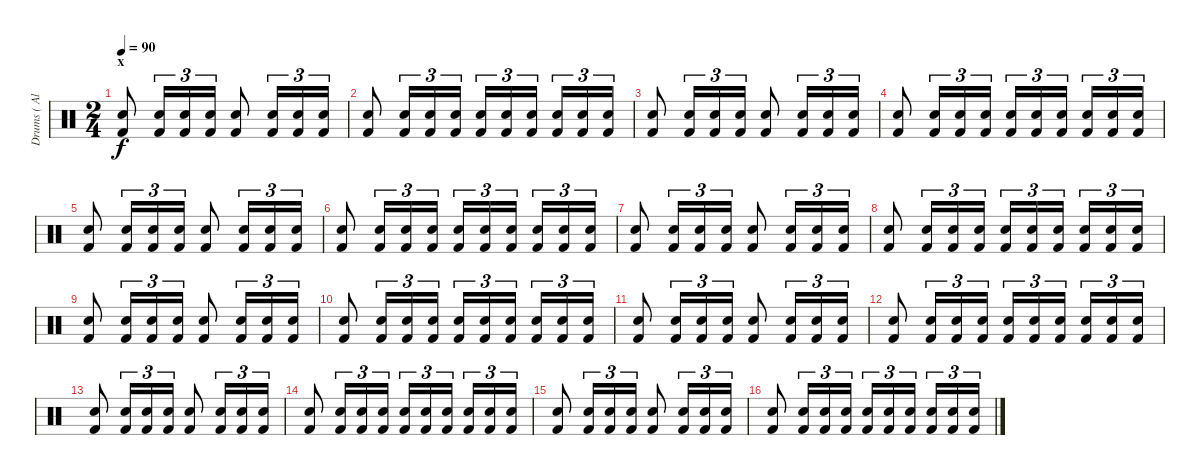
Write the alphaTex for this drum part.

\track ("Drums ( Alex Holzwarth)" "Drums ( Al") {instrument percussion}
\staff {score}
\articulation defaults
\ts (2 4)
\section ("" "x")
\tempo 90
\clef neutral
\ks c
("Snare (hit) 2" "Kick (hit) 2").8{dy f} ("Snare (hit) 2" "Kick (hit) 2").16{tu (3 2)} ("Snare (hit) 2" "Kick (hit) 2").16{tu (3 2)} ("Snare (hit) 2" "Kick (hit) 2").16{tu (3 2)} ("Snare (hit) 2" "Kick (hit) 2").8 ("Snare (hit) 2" "Kick (hit) 2").16{tu (3 2)} ("Snare (hit) 2" "Kick (hit) 2").16{tu (3 2)} ("Snare (hit) 2" "Kick (hit) 2").16{tu (3 2)} |
("Snare (hit) 2" "Kick (hit) 2").8 ("Snare (hit) 2" "Kick (hit) 2").16{tu (3 2)} ("Snare (hit) 2" "Kick (hit) 2").16{tu (3 2)} ("Snare (hit) 2" "Kick (hit) 2").16{tu (3 2)} ("Snare (hit) 2" "Kick (hit) 2").16{tu (3 2)} ("Snare (hit) 2" "Kick (hit) 2").16{tu (3 2)} ("Snare (hit) 2" "Kick (hit) 2").16{tu (3 2)} ("Snare (hit) 2" "Kick (hit) 2").16{tu (3 2)} ("Snare (hit) 2" "Kick (hit) 2").16{tu (3 2)} ("Snare (hit) 2" "Kick (hit) 2").16{tu (3 2)} |
("Snare (hit) 2" "Kick (hit) 2").8 ("Snare (hit) 2" "Kick (hit) 2").16{tu (3 2)} ("Snare (hit) 2" "Kick (hit) 2").16{tu (3 2)} ("Snare (hit) 2" "Kick (hit) 2").16{tu (3 2)} ("Snare (hit) 2" "Kick (hit) 2").8 ("Snare (hit) 2" "Kick (hit) 2").16{tu (3 2)} ("Snare (hit) 2" "Kick (hit) 2").16{tu (3 2)} ("Snare (hit) 2" "Kick (hit) 2").16{tu (3 2)} |
("Snare (hit) 2" "Kick (hit) 2").8 ("Snare (hit) 2" "Kick (hit) 2").16{tu (3 2)} ("Snare (hit) 2" "Kick (hit) 2").16{tu (3 2)} ("Snare (hit) 2" "Kick (hit) 2").16{tu (3 2)} ("Snare (hit) 2" "Kick (hit) 2").16{tu (3 2)} ("Snare (hit) 2" "Kick (hit) 2").16{tu (3 2)} ("Snare (hit) 2" "Kick (hit) 2").16{tu (3 2)} ("Snare (hit) 2" "Kick (hit) 2").16{tu (3 2)} ("Snare (hit) 2" "Kick (hit) 2").16{tu (3 2)} ("Snare (hit) 2" "Kick (hit) 2").16{tu (3 2)} |
("Snare (hit) 2" "Kick (hit) 2").8 ("Snare (hit) 2" "Kick (hit) 2").16{tu (3 2)} ("Snare (hit) 2" "Kick (hit) 2").16{tu (3 2)} ("Snare (hit) 2" "Kick (hit) 2").16{tu (3 2)} ("Snare (hit) 2" "Kick (hit) 2").8 ("Snare (hit) 2" "Kick (hit) 2").16{tu (3 2)} ("Snare (hit) 2" "Kick (hit) 2").16{tu (3 2)} ("Snare (hit) 2" "Kick (hit) 2").16{tu (3 2)} |
("Snare (hit) 2" "Kick (hit) 2").8 ("Snare (hit) 2" "Kick (hit) 2").16{tu (3 2)} ("Snare (hit) 2" "Kick (hit) 2").16{tu (3 2)} ("Snare (hit) 2" "Kick (hit) 2").16{tu (3 2)} ("Snare (hit) 2" "Kick (hit) 2").16{tu (3 2)} ("Snare (hit) 2" "Kick (hit) 2").16{tu (3 2)} ("Snare (hit) 2" "Kick (hit) 2").16{tu (3 2)} ("Snare (hit) 2" "Kick (hit) 2").16{tu (3 2)} ("Snare (hit) 2" "Kick (hit) 2").16{tu (3 2)} ("Snare (hit) 2" "Kick (hit) 2").16{tu (3 2)} |
("Snare (hit) 2" "Kick (hit) 2").8 ("Snare (hit) 2" "Kick (hit) 2").16{tu (3 2)} ("Snare (hit) 2" "Kick (hit) 2").16{tu (3 2)} ("Snare (hit) 2" "Kick (hit) 2").16{tu (3 2)} ("Snare (hit) 2" "Kick (hit) 2").8 ("Snare (hit) 2" "Kick (hit) 2").16{tu (3 2)} ("Snare (hit) 2" "Kick (hit) 2").16{tu (3 2)} ("Snare (hit) 2" "Kick (hit) 2").16{tu (3 2)} |
("Snare (hit) 2" "Kick (hit) 2").8 ("Snare (hit) 2" "Kick (hit) 2").16{tu (3 2)} ("Snare (hit) 2" "Kick (hit) 2").16{tu (3 2)} ("Snare (hit) 2" "Kick (hit) 2").16{tu (3 2)} ("Snare (hit) 2" "Kick (hit) 2").16{tu (3 2)} ("Snare (hit) 2" "Kick (hit) 2").16{tu (3 2)} ("Snare (hit) 2" "Kick (hit) 2").16{tu (3 2)} ("Snare (hit) 2" "Kick (hit) 2").16{tu (3 2)} ("Snare (hit) 2" "Kick (hit) 2").16{tu (3 2)} ("Snare (hit) 2" "Kick (hit) 2").16{tu (3 2)} |
("Snare (hit) 2" "Kick (hit) 2").8 ("Snare (hit) 2" "Kick (hit) 2").16{tu (3 2)} ("Snare (hit) 2" "Kick (hit) 2").16{tu (3 2)} ("Snare (hit) 2" "Kick (hit) 2").16{tu (3 2)} ("Snare (hit) 2" "Kick (hit) 2").8 ("Snare (hit) 2" "Kick (hit) 2").16{tu (3 2)} ("Snare (hit) 2" "Kick (hit) 2").16{tu (3 2)} ("Snare (hit) 2" "Kick (hit) 2").16{tu (3 2)} |
("Snare (hit) 2" "Kick (hit) 2").8 ("Snare (hit) 2" "Kick (hit) 2").16{tu (3 2)} ("Snare (hit) 2" "Kick (hit) 2").16{tu (3 2)} ("Snare (hit) 2" "Kick (hit) 2").16{tu (3 2)} ("Snare (hit) 2" "Kick (hit) 2").16{tu (3 2)} ("Snare (hit) 2" "Kick (hit) 2").16{tu (3 2)} ("Snare (hit) 2" "Kick (hit) 2").16{tu (3 2)} ("Snare (hit) 2" "Kick (hit) 2").16{tu (3 2)} ("Snare (hit) 2" "Kick (hit) 2").16{tu (3 2)} ("Snare (hit) 2" "Kick (hit) 2").16{tu (3 2)} |
("Snare (hit) 2" "Kick (hit) 2").8 ("Snare (hit) 2" "Kick (hit) 2").16{tu (3 2)} ("Snare (hit) 2" "Kick (hit) 2").16{tu (3 2)} ("Snare (hit) 2" "Kick (hit) 2").16{tu (3 2)} ("Snare (hit) 2" "Kick (hit) 2").8 ("Snare (hit) 2" "Kick (hit) 2").16{tu (3 2)} ("Snare (hit) 2" "Kick (hit) 2").16{tu (3 2)} ("Snare (hit) 2" "Kick (hit) 2").16{tu (3 2)} |
("Snare (hit) 2" "Kick (hit) 2").8 ("Snare (hit) 2" "Kick (hit) 2").16{tu (3 2)} ("Snare (hit) 2" "Kick (hit) 2").16{tu (3 2)} ("Snare (hit) 2" "Kick (hit) 2").16{tu (3 2)} ("Snare (hit) 2" "Kick (hit) 2").16{tu (3 2)} ("Snare (hit) 2" "Kick (hit) 2").16{tu (3 2)} ("Snare (hit) 2" "Kick (hit) 2").16{tu (3 2)} ("Snare (hit) 2" "Kick (hit) 2").16{tu (3 2)} ("Snare (hit) 2" "Kick (hit) 2").16{tu (3 2)} ("Snare (hit) 2" "Kick (hit) 2").16{tu (3 2)} |
("Snare (hit) 2" "Kick (hit) 2").8 ("Snare (hit) 2" "Kick (hit) 2").16{tu (3 2)} ("Snare (hit) 2" "Kick (hit) 2").16{tu (3 2)} ("Snare (hit) 2" "Kick (hit) 2").16{tu (3 2)} ("Snare (hit) 2" "Kick (hit) 2").8 ("Snare (hit) 2" "Kick (hit) 2").16{tu (3 2)} ("Snare (hit) 2" "Kick (hit) 2").16{tu (3 2)} ("Snare (hit) 2" "Kick (hit) 2").16{tu (3 2)} |
("Snare (hit) 2" "Kick (hit) 2").8 ("Snare (hit) 2" "Kick (hit) 2").16{tu (3 2)} ("Snare (hit) 2" "Kick (hit) 2").16{tu (3 2)} ("Snare (hit) 2" "Kick (hit) 2").16{tu (3 2)} ("Snare (hit) 2" "Kick (hit) 2").16{tu (3 2)} ("Snare (hit) 2" "Kick (hit) 2").16{tu (3 2)} ("Snare (hit) 2" "Kick (hit) 2").16{tu (3 2)} ("Snare (hit) 2" "Kick (hit) 2").16{tu (3 2)} ("Snare (hit) 2" "Kick (hit) 2").16{tu (3 2)} ("Snare (hit) 2" "Kick (hit) 2").16{tu (3 2)} |
("Snare (hit) 2" "Kick (hit) 2").8 ("Snare (hit) 2" "Kick (hit) 2").16{tu (3 2)} ("Snare (hit) 2" "Kick (hit) 2").16{tu (3 2)} ("Snare (hit) 2" "Kick (hit) 2").16{tu (3 2)} ("Snare (hit) 2" "Kick (hit) 2").8 ("Snare (hit) 2" "Kick (hit) 2").16{tu (3 2)} ("Snare (hit) 2" "Kick (hit) 2").16{tu (3 2)} ("Snare (hit) 2" "Kick (hit) 2").16{tu (3 2)} |
("Snare (hit) 2" "Kick (hit) 2").8 ("Snare (hit) 2" "Kick (hit) 2").16{tu (3 2)} ("Snare (hit) 2" "Kick (hit) 2").16{tu (3 2)} ("Snare (hit) 2" "Kick (hit) 2").16{tu (3 2)} ("Snare (hit) 2" "Kick (hit) 2").16{tu (3 2)} ("Snare (hit) 2" "Kick (hit) 2").16{tu (3 2)} ("Snare (hit) 2" "Kick (hit) 2").16{tu (3 2)} ("Snare (hit) 2" "Kick (hit) 2").16{tu (3 2)} ("Snare (hit) 2" "Kick (hit) 2").16{tu (3 2)} ("Snare (hit) 2" "Kick (hit) 2").16{tu (3 2)}
